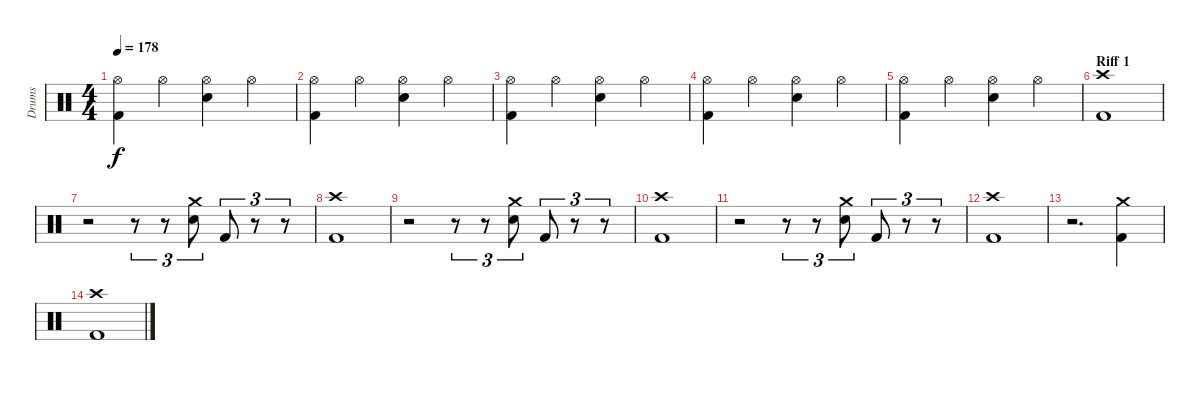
\track ("Drums" "Drums") {instrument percussion}
\staff {score}
\articulation defaults
\ts (4 4)
\tempo 178
\clef neutral
\ks c
("Hi-Hat (open)" "Kick (hit) 2").4{dy f} "Hi-Hat (open)".4 ("Hi-Hat (open)" "Electric Snare (hit)").4 "Hi-Hat (open)".4 |
("Hi-Hat (open)" "Kick (hit) 2").4 "Hi-Hat (open)".4 ("Hi-Hat (open)" "Electric Snare (hit)").4 "Hi-Hat (open)".4 |
("Hi-Hat (open)" "Kick (hit) 2").4 "Hi-Hat (open)".4 ("Hi-Hat (open)" "Electric Snare (hit)").4 "Hi-Hat (open)".4 |
("Hi-Hat (open)" "Kick (hit) 2").4 "Hi-Hat (open)".4 ("Hi-Hat (open)" "Electric Snare (hit)").4 "Hi-Hat (open)".4 |
("Hi-Hat (open)" "Kick (hit) 2").4 "Hi-Hat (open)".4 ("Hi-Hat (open)" "Electric Snare (hit)").4 "Hi-Hat (open)".4 |
\section ("" "Riff 1")
("Crash high (hit)" "Kick (hit) 2").1 |
r.2 r.8{tu (3 2)} r.8{tu (3 2)} ("Crash medium (hit)" "Electric Snare (hit)").8{tu (3 2)} "Kick (hit) 2".8{tu (3 2)} r.8{tu (3 2)} r.8{tu (3 2)} |
("Crash high (hit)" "Kick (hit) 2").1 |
r.2 r.8{tu (3 2)} r.8{tu (3 2)} ("Crash medium (hit)" "Electric Snare (hit)").8{tu (3 2)} "Kick (hit) 2".8{tu (3 2)} r.8{tu (3 2)} r.8{tu (3 2)} |
("Crash high (hit)" "Kick (hit) 2").1 |
r.2 r.8{tu (3 2)} r.8{tu (3 2)} ("Crash medium (hit)" "Electric Snare (hit)").8{tu (3 2)} "Kick (hit) 2".8{tu (3 2)} r.8{tu (3 2)} r.8{tu (3 2)} |
("Crash high (hit)" "Kick (hit) 2").1 |
r.2{d} ("Crash medium (hit)" "Kick (hit) 2").4 |
("Crash high (hit)" "Kick (hit) 2").1
